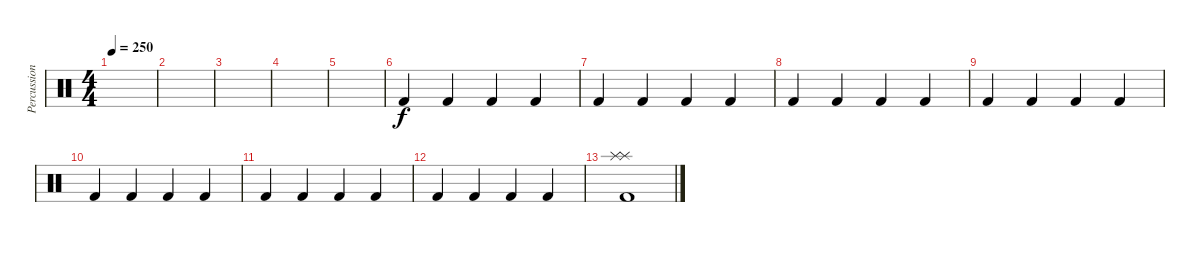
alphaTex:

\track ("Percussions" "Percussion") {instrument percussion}
\staff {score}
\articulation defaults
\ts (4 4)
\tempo 250
\clef neutral
\ks c
|
|
|
|
|
"Kick (hit) 2".4 "Kick (hit) 2".4 "Kick (hit) 2".4 "Kick (hit) 2".4 |
"Kick (hit) 2".4 "Kick (hit) 2".4 "Kick (hit) 2".4 "Kick (hit) 2".4 |
"Kick (hit) 2".4 "Kick (hit) 2".4 "Kick (hit) 2".4 "Kick (hit) 2".4 |
"Kick (hit) 2".4 "Kick (hit) 2".4 "Kick (hit) 2".4 "Kick (hit) 2".4 |
"Kick (hit) 2".4 "Kick (hit) 2".4 "Kick (hit) 2".4 "Kick (hit) 2".4 |
"Kick (hit) 2".4 "Kick (hit) 2".4 "Kick (hit) 2".4 "Kick (hit) 2".4 |
"Kick (hit) 2".4 "Kick (hit) 2".4 "Kick (hit) 2".4 "Kick (hit) 2".4 |
("Kick (hit) 2" "Splash (hit)" "Splash (hit)").1
